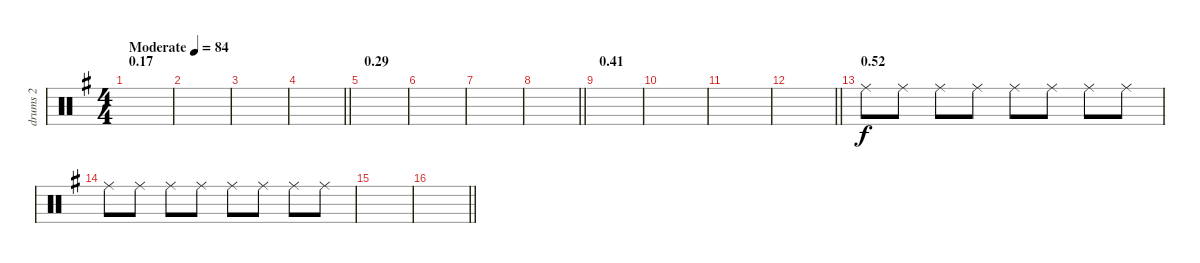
\track ("drums 2" "drums 2") {instrument percussion}
\staff {score}
\articulation defaults
\ts (4 4)
\section ("" "0.17")
\tempo (84 "Moderate")
\clef neutral
\ks g
|
|
|
\barLineRight lightlight
|
\section ("" "0.29")
|
|
|
\barLineRight lightlight
|
\section ("" "0.41")
|
|
|
\barLineRight lightlight
|
\section ("" "0.52")
"Ride (middle)".8 "Ride (middle)".8 "Ride (middle)".8 "Ride (middle)".8 "Ride (middle)".8 "Ride (middle)".8 "Ride (middle)".8 "Ride (middle)".8 |
"Ride (middle)".8 "Ride (middle)".8 "Ride (middle)".8 "Ride (middle)".8 "Ride (middle)".8 "Ride (middle)".8 "Ride (middle)".8 "Ride (middle)".8 |
|
\barLineRight lightlight
